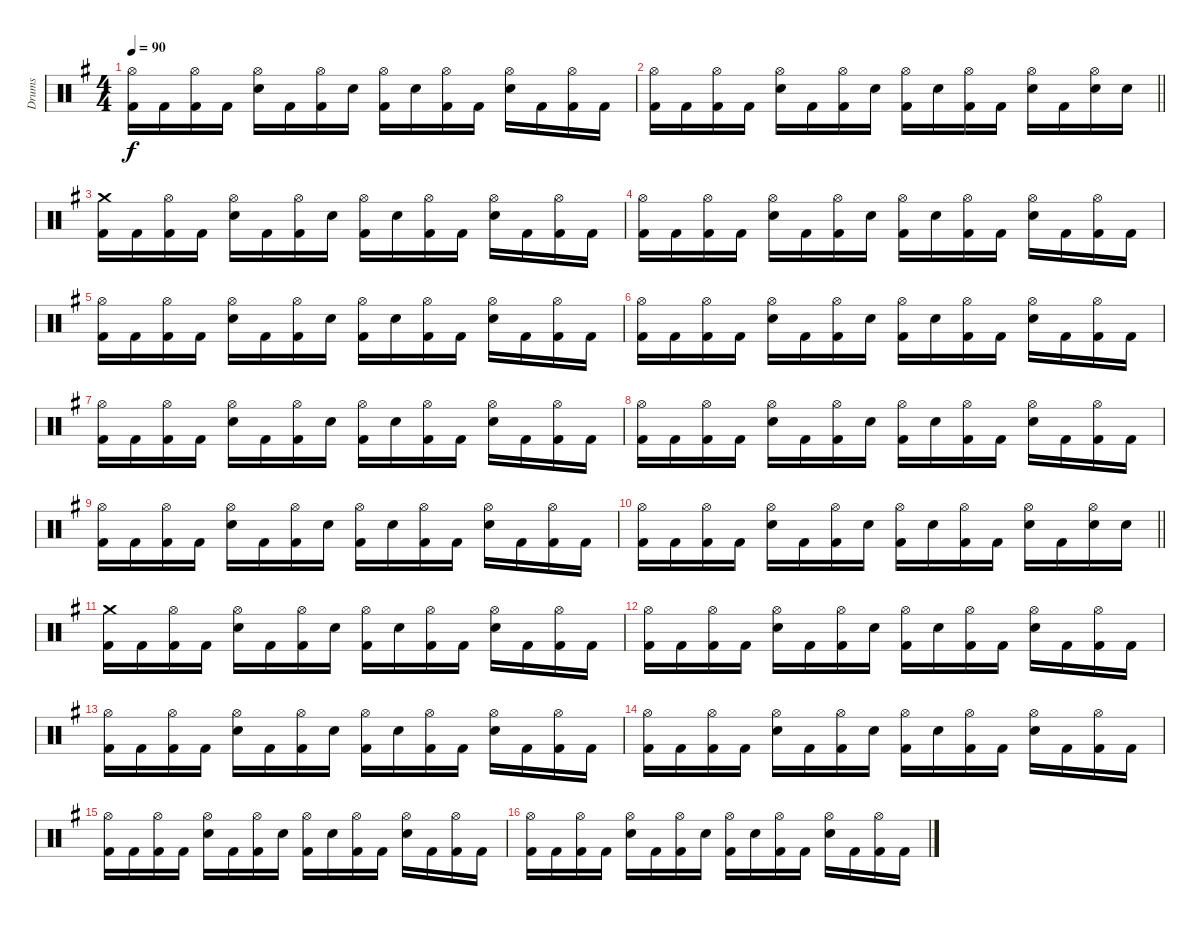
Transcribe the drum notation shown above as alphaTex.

\track ("Drums" "Drums") {instrument percussion}
\staff {score}
\articulation defaults
\ts (4 4)
\tempo 90
\clef neutral
\ks eminor
("Kick (hit) 2" "Hi-Hat (open)").16{dy f} "Kick (hit) 2".16 ("Kick (hit) 2" "Hi-Hat (open)").16 "Kick (hit) 2".16 ("Electric Snare (hit)" "Hi-Hat (open)").16 "Kick (hit) 2".16 ("Kick (hit) 2" "Hi-Hat (open)").16 "Electric Snare (hit)".16 ("Kick (hit) 2" "Hi-Hat (open)").16 "Electric Snare (hit)".16 ("Kick (hit) 2" "Hi-Hat (open)").16 "Kick (hit) 2".16 ("Electric Snare (hit)" "Hi-Hat (open)").16 "Kick (hit) 2".16 ("Kick (hit) 2" "Hi-Hat (open)").16 "Kick (hit) 2".16 |
\barLineRight lightlight
("Kick (hit) 2" "Hi-Hat (open)").16 "Kick (hit) 2".16 ("Kick (hit) 2" "Hi-Hat (open)").16 "Kick (hit) 2".16 ("Electric Snare (hit)" "Hi-Hat (open)").16 "Kick (hit) 2".16 ("Kick (hit) 2" "Hi-Hat (open)").16 "Electric Snare (hit)".16 ("Kick (hit) 2" "Hi-Hat (open)").16 "Electric Snare (hit)".16 ("Kick (hit) 2" "Hi-Hat (open)").16 "Kick (hit) 2".16 ("Electric Snare (hit)" "Hi-Hat (open)").16 "Kick (hit) 2".16 ("Electric Snare (hit)" "Hi-Hat (open)").16 "Electric Snare (hit)".16 |
("Kick (hit) 2" "Crash medium (hit)").16 "Kick (hit) 2".16 ("Kick (hit) 2" "Hi-Hat (open)").16 "Kick (hit) 2".16 ("Electric Snare (hit)" "Hi-Hat (open)").16 "Kick (hit) 2".16 ("Kick (hit) 2" "Hi-Hat (open)").16 "Electric Snare (hit)".16 ("Kick (hit) 2" "Hi-Hat (open)").16 "Electric Snare (hit)".16 ("Kick (hit) 2" "Hi-Hat (open)").16 "Kick (hit) 2".16 ("Electric Snare (hit)" "Hi-Hat (open)").16 "Kick (hit) 2".16 ("Kick (hit) 2" "Hi-Hat (open)").16 "Kick (hit) 2".16 |
("Kick (hit) 2" "Hi-Hat (open)").16 "Kick (hit) 2".16 ("Kick (hit) 2" "Hi-Hat (open)").16 "Kick (hit) 2".16 ("Electric Snare (hit)" "Hi-Hat (open)").16 "Kick (hit) 2".16 ("Kick (hit) 2" "Hi-Hat (open)").16 "Electric Snare (hit)".16 ("Kick (hit) 2" "Hi-Hat (open)").16 "Electric Snare (hit)".16 ("Kick (hit) 2" "Hi-Hat (open)").16 "Kick (hit) 2".16 ("Electric Snare (hit)" "Hi-Hat (open)").16 "Kick (hit) 2".16 ("Kick (hit) 2" "Hi-Hat (open)").16 "Kick (hit) 2".16 |
("Kick (hit) 2" "Hi-Hat (open)").16 "Kick (hit) 2".16 ("Kick (hit) 2" "Hi-Hat (open)").16 "Kick (hit) 2".16 ("Electric Snare (hit)" "Hi-Hat (open)").16 "Kick (hit) 2".16 ("Kick (hit) 2" "Hi-Hat (open)").16 "Electric Snare (hit)".16 ("Kick (hit) 2" "Hi-Hat (open)").16 "Electric Snare (hit)".16 ("Kick (hit) 2" "Hi-Hat (open)").16 "Kick (hit) 2".16 ("Electric Snare (hit)" "Hi-Hat (open)").16 "Kick (hit) 2".16 ("Kick (hit) 2" "Hi-Hat (open)").16 "Kick (hit) 2".16 |
("Kick (hit) 2" "Hi-Hat (open)").16 "Kick (hit) 2".16 ("Kick (hit) 2" "Hi-Hat (open)").16 "Kick (hit) 2".16 ("Electric Snare (hit)" "Hi-Hat (open)").16 "Kick (hit) 2".16 ("Kick (hit) 2" "Hi-Hat (open)").16 "Electric Snare (hit)".16 ("Kick (hit) 2" "Hi-Hat (open)").16 "Electric Snare (hit)".16 ("Kick (hit) 2" "Hi-Hat (open)").16 "Kick (hit) 2".16 ("Electric Snare (hit)" "Hi-Hat (open)").16 "Kick (hit) 2".16 ("Kick (hit) 2" "Hi-Hat (open)").16 "Kick (hit) 2".16 |
("Kick (hit) 2" "Hi-Hat (open)").16 "Kick (hit) 2".16 ("Kick (hit) 2" "Hi-Hat (open)").16 "Kick (hit) 2".16 ("Electric Snare (hit)" "Hi-Hat (open)").16 "Kick (hit) 2".16 ("Kick (hit) 2" "Hi-Hat (open)").16 "Electric Snare (hit)".16 ("Kick (hit) 2" "Hi-Hat (open)").16 "Electric Snare (hit)".16 ("Kick (hit) 2" "Hi-Hat (open)").16 "Kick (hit) 2".16 ("Electric Snare (hit)" "Hi-Hat (open)").16 "Kick (hit) 2".16 ("Kick (hit) 2" "Hi-Hat (open)").16 "Kick (hit) 2".16 |
("Kick (hit) 2" "Hi-Hat (open)").16 "Kick (hit) 2".16 ("Kick (hit) 2" "Hi-Hat (open)").16 "Kick (hit) 2".16 ("Electric Snare (hit)" "Hi-Hat (open)").16 "Kick (hit) 2".16 ("Kick (hit) 2" "Hi-Hat (open)").16 "Electric Snare (hit)".16 ("Kick (hit) 2" "Hi-Hat (open)").16 "Electric Snare (hit)".16 ("Kick (hit) 2" "Hi-Hat (open)").16 "Kick (hit) 2".16 ("Electric Snare (hit)" "Hi-Hat (open)").16 "Kick (hit) 2".16 ("Kick (hit) 2" "Hi-Hat (open)").16 "Kick (hit) 2".16 |
("Kick (hit) 2" "Hi-Hat (open)").16 "Kick (hit) 2".16 ("Kick (hit) 2" "Hi-Hat (open)").16 "Kick (hit) 2".16 ("Electric Snare (hit)" "Hi-Hat (open)").16 "Kick (hit) 2".16 ("Kick (hit) 2" "Hi-Hat (open)").16 "Electric Snare (hit)".16 ("Kick (hit) 2" "Hi-Hat (open)").16 "Electric Snare (hit)".16 ("Kick (hit) 2" "Hi-Hat (open)").16 "Kick (hit) 2".16 ("Electric Snare (hit)" "Hi-Hat (open)").16 "Kick (hit) 2".16 ("Kick (hit) 2" "Hi-Hat (open)").16 "Kick (hit) 2".16 |
\barLineRight lightlight
("Kick (hit) 2" "Hi-Hat (open)").16 "Kick (hit) 2".16 ("Kick (hit) 2" "Hi-Hat (open)").16 "Kick (hit) 2".16 ("Electric Snare (hit)" "Hi-Hat (open)").16 "Kick (hit) 2".16 ("Kick (hit) 2" "Hi-Hat (open)").16 "Electric Snare (hit)".16 ("Kick (hit) 2" "Hi-Hat (open)").16 "Electric Snare (hit)".16 ("Kick (hit) 2" "Hi-Hat (open)").16 "Kick (hit) 2".16 ("Electric Snare (hit)" "Hi-Hat (open)").16 "Kick (hit) 2".16 ("Electric Snare (hit)" "Hi-Hat (open)").16 "Electric Snare (hit)".16 |
("Kick (hit) 2" "Crash medium (hit)").16 "Kick (hit) 2".16 ("Kick (hit) 2" "Hi-Hat (open)").16 "Kick (hit) 2".16 ("Electric Snare (hit)" "Hi-Hat (open)").16 "Kick (hit) 2".16 ("Kick (hit) 2" "Hi-Hat (open)").16 "Electric Snare (hit)".16 ("Kick (hit) 2" "Hi-Hat (open)").16 "Electric Snare (hit)".16 ("Kick (hit) 2" "Hi-Hat (open)").16 "Kick (hit) 2".16 ("Electric Snare (hit)" "Hi-Hat (open)").16 "Kick (hit) 2".16 ("Kick (hit) 2" "Hi-Hat (open)").16 "Kick (hit) 2".16 |
("Kick (hit) 2" "Hi-Hat (open)").16 "Kick (hit) 2".16 ("Kick (hit) 2" "Hi-Hat (open)").16 "Kick (hit) 2".16 ("Electric Snare (hit)" "Hi-Hat (open)").16 "Kick (hit) 2".16 ("Kick (hit) 2" "Hi-Hat (open)").16 "Electric Snare (hit)".16 ("Kick (hit) 2" "Hi-Hat (open)").16 "Electric Snare (hit)".16 ("Kick (hit) 2" "Hi-Hat (open)").16 "Kick (hit) 2".16 ("Electric Snare (hit)" "Hi-Hat (open)").16 "Kick (hit) 2".16 ("Kick (hit) 2" "Hi-Hat (open)").16 "Kick (hit) 2".16 |
("Kick (hit) 2" "Hi-Hat (open)").16 "Kick (hit) 2".16 ("Kick (hit) 2" "Hi-Hat (open)").16 "Kick (hit) 2".16 ("Electric Snare (hit)" "Hi-Hat (open)").16 "Kick (hit) 2".16 ("Kick (hit) 2" "Hi-Hat (open)").16 "Electric Snare (hit)".16 ("Kick (hit) 2" "Hi-Hat (open)").16 "Electric Snare (hit)".16 ("Kick (hit) 2" "Hi-Hat (open)").16 "Kick (hit) 2".16 ("Electric Snare (hit)" "Hi-Hat (open)").16 "Kick (hit) 2".16 ("Kick (hit) 2" "Hi-Hat (open)").16 "Kick (hit) 2".16 |
("Kick (hit) 2" "Hi-Hat (open)").16 "Kick (hit) 2".16 ("Kick (hit) 2" "Hi-Hat (open)").16 "Kick (hit) 2".16 ("Electric Snare (hit)" "Hi-Hat (open)").16 "Kick (hit) 2".16 ("Kick (hit) 2" "Hi-Hat (open)").16 "Electric Snare (hit)".16 ("Kick (hit) 2" "Hi-Hat (open)").16 "Electric Snare (hit)".16 ("Kick (hit) 2" "Hi-Hat (open)").16 "Kick (hit) 2".16 ("Electric Snare (hit)" "Hi-Hat (open)").16 "Kick (hit) 2".16 ("Kick (hit) 2" "Hi-Hat (open)").16 "Kick (hit) 2".16 |
("Kick (hit) 2" "Hi-Hat (open)").16 "Kick (hit) 2".16 ("Kick (hit) 2" "Hi-Hat (open)").16 "Kick (hit) 2".16 ("Electric Snare (hit)" "Hi-Hat (open)").16 "Kick (hit) 2".16 ("Kick (hit) 2" "Hi-Hat (open)").16 "Electric Snare (hit)".16 ("Kick (hit) 2" "Hi-Hat (open)").16 "Electric Snare (hit)".16 ("Kick (hit) 2" "Hi-Hat (open)").16 "Kick (hit) 2".16 ("Electric Snare (hit)" "Hi-Hat (open)").16 "Kick (hit) 2".16 ("Kick (hit) 2" "Hi-Hat (open)").16 "Kick (hit) 2".16 |
("Kick (hit) 2" "Hi-Hat (open)").16 "Kick (hit) 2".16 ("Kick (hit) 2" "Hi-Hat (open)").16 "Kick (hit) 2".16 ("Electric Snare (hit)" "Hi-Hat (open)").16 "Kick (hit) 2".16 ("Kick (hit) 2" "Hi-Hat (open)").16 "Electric Snare (hit)".16 ("Kick (hit) 2" "Hi-Hat (open)").16 "Electric Snare (hit)".16 ("Kick (hit) 2" "Hi-Hat (open)").16 "Kick (hit) 2".16 ("Electric Snare (hit)" "Hi-Hat (open)").16 "Kick (hit) 2".16 ("Kick (hit) 2" "Hi-Hat (open)").16 "Kick (hit) 2".16
